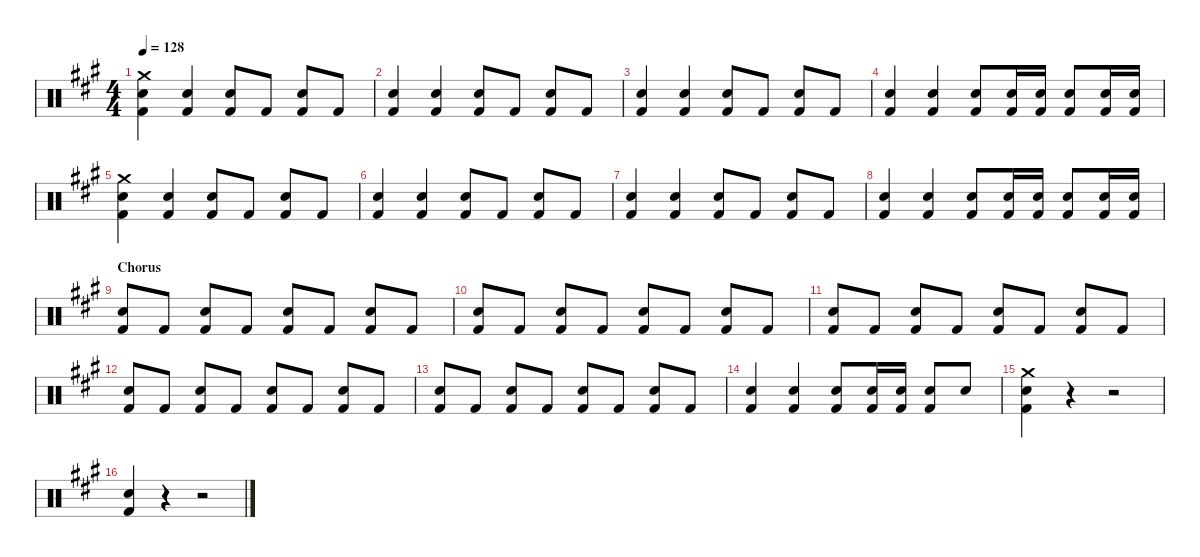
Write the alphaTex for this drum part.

\defaultSystemsLayout 4
\hideDynamics
\bracketExtendMode nobrackets
\singleTrackTrackNamePolicy hidden
\multiTrackTrackNamePolicy hidden
\firstSystemTrackNameMode fullname
\firstSystemTrackNameOrientation horizontal
\otherSystemsTrackNameOrientation horizontal
\track ("Drumkit" "Drums") {instrument percussion}
\staff {score}
\articulation defaults
\ts (4 4)
\tempo 128
\clef neutral
\ks a
("Crash medium (hit)"{acc forcenatural} "Snare (hit) 2"{acc forcenatural} "Kick (hit) 2"{acc forcenatural}).4{dy f beam Down} ("Snare (hit) 2"{acc forcenatural} "Kick (hit) 2"{acc forcenatural}).4{beam Up} ("Snare (hit) 2"{acc forcenatural} "Kick (hit) 2"{acc forcenatural}).8{beam Up} "Kick (hit) 2"{acc forcenatural}.8{beam Up} ("Snare (hit) 2"{acc forcenatural} "Kick (hit) 2"{acc forcenatural}).8{beam Up} "Kick (hit) 2"{acc forcenatural}.8{beam Up} |
("Snare (hit) 2"{acc forcenatural} "Kick (hit) 2"{acc forcenatural}).4{beam Up} ("Snare (hit) 2"{acc forcenatural} "Kick (hit) 2"{acc forcenatural}).4{beam Up} ("Snare (hit) 2"{acc forcenatural} "Kick (hit) 2"{acc forcenatural}).8{beam Up} "Kick (hit) 2"{acc forcenatural}.8{beam Up} ("Snare (hit) 2"{acc forcenatural} "Kick (hit) 2"{acc forcenatural}).8{beam Up} "Kick (hit) 2"{acc forcenatural}.8{beam Up} |
("Snare (hit) 2"{acc forcenatural} "Kick (hit) 2"{acc forcenatural}).4{beam Up} ("Snare (hit) 2"{acc forcenatural} "Kick (hit) 2"{acc forcenatural}).4{beam Up} ("Snare (hit) 2"{acc forcenatural} "Kick (hit) 2"{acc forcenatural}).8{beam Up} "Kick (hit) 2"{acc forcenatural}.8{beam Up} ("Snare (hit) 2"{acc forcenatural} "Kick (hit) 2"{acc forcenatural}).8{beam Up} "Kick (hit) 2"{acc forcenatural}.8{beam Up} |
("Snare (hit) 2"{acc forcenatural} "Kick (hit) 2"{acc forcenatural}).4{beam Up} ("Snare (hit) 2"{acc forcenatural} "Kick (hit) 2"{acc forcenatural}).4{beam Up} ("Snare (hit) 2"{acc forcenatural} "Kick (hit) 2"{acc forcenatural}).8{beam Up} ("Snare (hit) 2"{acc forcenatural} "Kick (hit) 2"{acc forcenatural}).16{beam Up} ("Snare (hit) 2"{acc forcenatural} "Kick (hit) 2"{acc forcenatural}).16{beam Up} ("Snare (hit) 2"{acc forcenatural} "Kick (hit) 2"{acc forcenatural}).8{beam Up} ("Snare (hit) 2"{acc forcenatural} "Kick (hit) 2"{acc forcenatural}).16{beam Up} ("Snare (hit) 2"{acc forcenatural} "Kick (hit) 2"{acc forcenatural}).16{beam Up} |
("Crash medium (hit)"{acc forcenatural} "Snare (hit) 2"{acc forcenatural} "Kick (hit) 2"{acc forcenatural}).4{beam Down} ("Snare (hit) 2"{acc forcenatural} "Kick (hit) 2"{acc forcenatural}).4{beam Up} ("Snare (hit) 2"{acc forcenatural} "Kick (hit) 2"{acc forcenatural}).8{beam Up} "Kick (hit) 2"{acc forcenatural}.8{beam Up} ("Snare (hit) 2"{acc forcenatural} "Kick (hit) 2"{acc forcenatural}).8{beam Up} "Kick (hit) 2"{acc forcenatural}.8{beam Up} |
("Snare (hit) 2"{acc forcenatural} "Kick (hit) 2"{acc forcenatural}).4{beam Up} ("Snare (hit) 2"{acc forcenatural} "Kick (hit) 2"{acc forcenatural}).4{beam Up} ("Snare (hit) 2"{acc forcenatural} "Kick (hit) 2"{acc forcenatural}).8{beam Up} "Kick (hit) 2"{acc forcenatural}.8{beam Up} ("Snare (hit) 2"{acc forcenatural} "Kick (hit) 2"{acc forcenatural}).8{beam Up} "Kick (hit) 2"{acc forcenatural}.8{beam Up} |
("Snare (hit) 2"{acc forcenatural} "Kick (hit) 2"{acc forcenatural}).4{beam Up} ("Snare (hit) 2"{acc forcenatural} "Kick (hit) 2"{acc forcenatural}).4{beam Up} ("Snare (hit) 2"{acc forcenatural} "Kick (hit) 2"{acc forcenatural}).8{beam Up} "Kick (hit) 2"{acc forcenatural}.8{beam Up} ("Snare (hit) 2"{acc forcenatural} "Kick (hit) 2"{acc forcenatural}).8{beam Up} "Kick (hit) 2"{acc forcenatural}.8{beam Up} |
("Snare (hit) 2"{acc forcenatural} "Kick (hit) 2"{acc forcenatural}).4{beam Up} ("Snare (hit) 2"{acc forcenatural} "Kick (hit) 2"{acc forcenatural}).4{beam Up} ("Snare (hit) 2"{acc forcenatural} "Kick (hit) 2"{acc forcenatural}).8{beam Up} ("Snare (hit) 2"{acc forcenatural} "Kick (hit) 2"{acc forcenatural}).16{beam Up} ("Snare (hit) 2"{acc forcenatural} "Kick (hit) 2"{acc forcenatural}).16{beam Up} ("Snare (hit) 2"{acc forcenatural} "Kick (hit) 2"{acc forcenatural}).8{beam Up} ("Snare (hit) 2"{acc forcenatural} "Kick (hit) 2"{acc forcenatural}).16{beam Up} ("Snare (hit) 2"{acc forcenatural} "Kick (hit) 2"{acc forcenatural}).16{beam Up} |
\section ("" "Chorus")
("Snare (hit) 2"{acc forcenatural} "Kick (hit) 2"{acc forcenatural}).8{beam Up} "Kick (hit) 2"{acc forcenatural}.8{beam Up} ("Snare (hit) 2"{acc forcenatural} "Kick (hit) 2"{acc forcenatural}).8{beam Up} "Kick (hit) 2"{acc forcenatural}.8{beam Up} ("Snare (hit) 2"{acc forcenatural} "Kick (hit) 2"{acc forcenatural}).8{beam Up} "Kick (hit) 2"{acc forcenatural}.8{beam Up} ("Snare (hit) 2"{acc forcenatural} "Kick (hit) 2"{acc forcenatural}).8{beam Up} "Kick (hit) 2"{acc forcenatural}.8{beam Up} |
("Snare (hit) 2"{acc forcenatural} "Kick (hit) 2"{acc forcenatural}).8{beam Up} "Kick (hit) 2"{acc forcenatural}.8{beam Up} ("Snare (hit) 2"{acc forcenatural} "Kick (hit) 2"{acc forcenatural}).8{beam Up} "Kick (hit) 2"{acc forcenatural}.8{beam Up} ("Snare (hit) 2"{acc forcenatural} "Kick (hit) 2"{acc forcenatural}).8{beam Up} "Kick (hit) 2"{acc forcenatural}.8{beam Up} ("Snare (hit) 2"{acc forcenatural} "Kick (hit) 2"{acc forcenatural}).8{beam Up} "Kick (hit) 2"{acc forcenatural}.8{beam Up} |
("Snare (hit) 2"{acc forcenatural} "Kick (hit) 2"{acc forcenatural}).8{beam Up} "Kick (hit) 2"{acc forcenatural}.8{beam Up} ("Snare (hit) 2"{acc forcenatural} "Kick (hit) 2"{acc forcenatural}).8{beam Up} "Kick (hit) 2"{acc forcenatural}.8{beam Up} ("Snare (hit) 2"{acc forcenatural} "Kick (hit) 2"{acc forcenatural}).8{beam Up} "Kick (hit) 2"{acc forcenatural}.8{beam Up} ("Snare (hit) 2"{acc forcenatural} "Kick (hit) 2"{acc forcenatural}).8{beam Up} "Kick (hit) 2"{acc forcenatural}.8{beam Up} |
("Snare (hit) 2"{acc forcenatural} "Kick (hit) 2"{acc forcenatural}).8{beam Up} "Kick (hit) 2"{acc forcenatural}.8{beam Up} ("Snare (hit) 2"{acc forcenatural} "Kick (hit) 2"{acc forcenatural}).8{beam Up} "Kick (hit) 2"{acc forcenatural}.8{beam Up} ("Snare (hit) 2"{acc forcenatural} "Kick (hit) 2"{acc forcenatural}).8{beam Up} "Kick (hit) 2"{acc forcenatural}.8{beam Up} ("Snare (hit) 2"{acc forcenatural} "Kick (hit) 2"{acc forcenatural}).8{beam Up} "Kick (hit) 2"{acc forcenatural}.8{beam Up} |
("Snare (hit) 2"{acc forcenatural} "Kick (hit) 2"{acc forcenatural}).8{beam Up} "Kick (hit) 2"{acc forcenatural}.8{beam Up} ("Snare (hit) 2"{acc forcenatural} "Kick (hit) 2"{acc forcenatural}).8{beam Up} "Kick (hit) 2"{acc forcenatural}.8{beam Up} ("Snare (hit) 2"{acc forcenatural} "Kick (hit) 2"{acc forcenatural}).8{beam Up} "Kick (hit) 2"{acc forcenatural}.8{beam Up} ("Snare (hit) 2"{acc forcenatural} "Kick (hit) 2"{acc forcenatural}).8{beam Up} "Kick (hit) 2"{acc forcenatural}.8{beam Up} |
("Snare (hit) 2"{acc forcenatural} "Kick (hit) 2"{acc forcenatural}).4{beam Up} ("Snare (hit) 2"{acc forcenatural} "Kick (hit) 2"{acc forcenatural}).4{beam Up} ("Snare (hit) 2"{acc forcenatural} "Kick (hit) 2"{acc forcenatural}).8{beam Up} ("Snare (hit) 2"{acc forcenatural} "Kick (hit) 2"{acc forcenatural}).16{beam Up} ("Snare (hit) 2"{acc forcenatural} "Kick (hit) 2"{acc forcenatural}).16{beam Up} ("Snare (hit) 2"{acc forcenatural} "Kick (hit) 2"{acc forcenatural}).8{beam Up} "Snare (hit) 2"{acc forcenatural}.8{beam Up} |
("Snare (hit) 2"{acc forcenatural} "Kick (hit) 2"{acc forcenatural} "Crash medium (hit)"{acc forcenatural}).4{beam Down} r.4{beam Down} r.2{beam Down} |
("Snare (hit) 2"{acc forcenatural} "Kick (hit) 2"{acc forcenatural}).4{beam Up} r.4{beam Up} r.2{beam Up}
